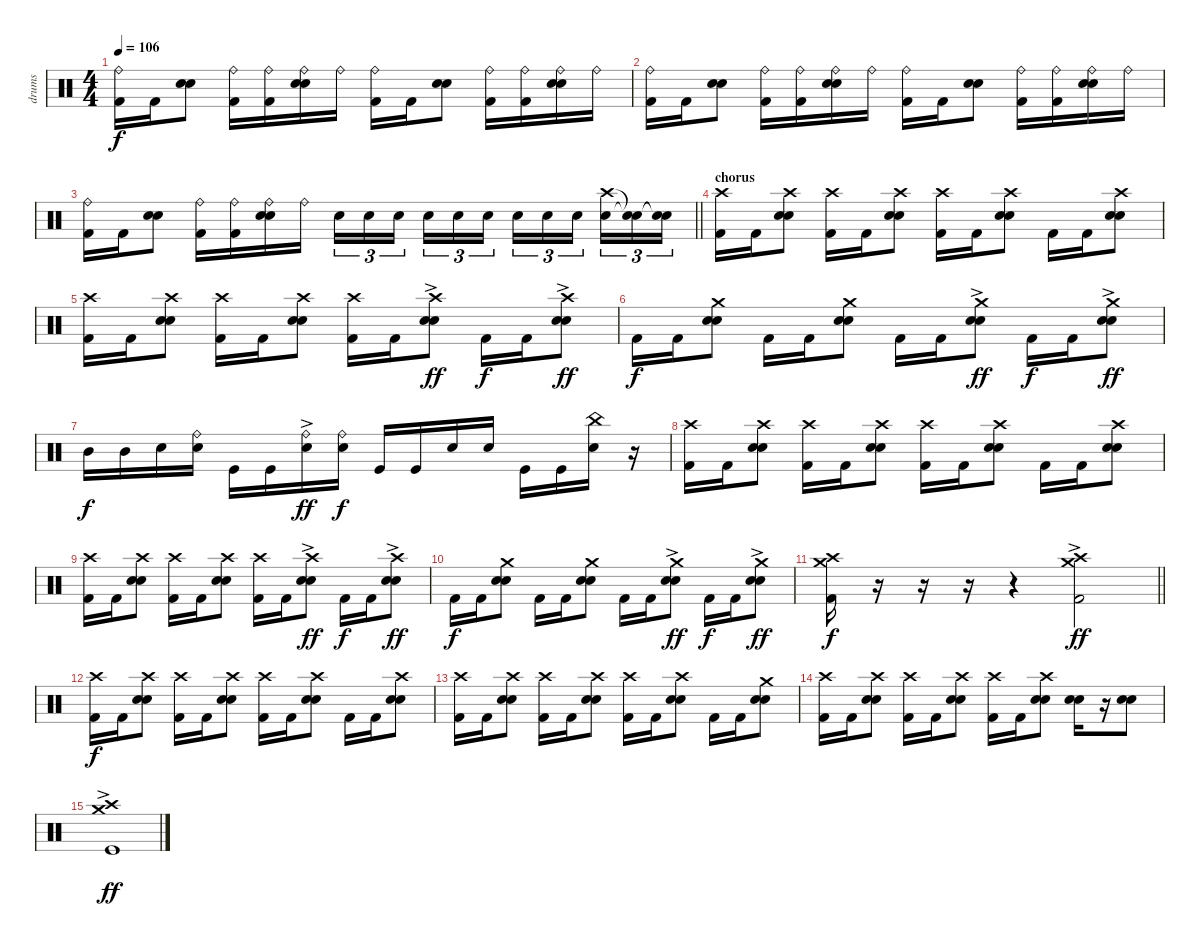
\track ("drums" "drums") {instrument percussion}
\staff {score}
\articulation defaults
\ts (4 4)
\tempo 106
\clef neutral
\ks c
("Ride (bell)" "Kick (hit) 2").16{dy f} "Kick (hit) 2".16 ("Snare (hit) 2" "Snare (hit) 2").8 ("Ride (bell)" "Kick (hit) 2").16 ("Ride (bell)" "Kick (hit) 2").16 ("Ride (bell)" "Snare (hit) 2" "Snare (hit) 2").16 "Ride (bell)".16 ("Ride (bell)" "Kick (hit) 2").16 "Kick (hit) 2".16 ("Snare (hit) 2" "Snare (hit) 2").8 ("Ride (bell)" "Kick (hit) 2").16 ("Ride (bell)" "Kick (hit) 2").16 ("Ride (bell)" "Snare (hit) 2" "Snare (hit) 2").16 "Ride (bell)".16 |
("Ride (bell)" "Kick (hit) 2").16 "Kick (hit) 2".16 ("Snare (hit) 2" "Snare (hit) 2").8 ("Ride (bell)" "Kick (hit) 2").16 ("Ride (bell)" "Kick (hit) 2").16 ("Ride (bell)" "Snare (hit) 2" "Snare (hit) 2").16 "Ride (bell)".16 ("Ride (bell)" "Kick (hit) 2").16 "Kick (hit) 2".16 ("Snare (hit) 2" "Snare (hit) 2").8 ("Ride (bell)" "Kick (hit) 2").16 ("Ride (bell)" "Kick (hit) 2").16 ("Ride (bell)" "Snare (hit) 2" "Snare (hit) 2").16 "Ride (bell)".16 |
\barLineRight lightlight
("Ride (bell)" "Kick (hit) 2").16 "Kick (hit) 2".16 ("Snare (hit) 2" "Snare (hit) 2").8 ("Ride (bell)" "Kick (hit) 2").16 ("Ride (bell)" "Kick (hit) 2").16 ("Ride (bell)" "Snare (hit) 2" "Snare (hit) 2").16 "Ride (bell)".16 "Snare (hit) 2".16{tu (3 2)} "Snare (hit) 2".16{tu (3 2)} "Snare (hit) 2".16{tu (3 2)} "Snare (hit) 2".16{tu (3 2)} "Snare (hit) 2".16{tu (3 2)} "Snare (hit) 2".16{tu (3 2)} "Snare (hit) 2".16{tu (3 2)} "Snare (hit) 2".16{tu (3 2)} "Snare (hit) 2".16{tu (3 2)} ("Crash high (hit)" "Snare (hit) 2").16{tu (3 2)} ("Snare (hit)"{t} "Snare (hit)"{t}).16{tu (3 2)} ("Snare (hit)"{t} "Snare (hit)"{t}).16{tu (3 2)} |
\section ("" "chorus")
("Crash high (hit)" "Kick (hit) 2").16 "Kick (hit) 2".16 ("Crash high (hit)" "Snare (hit) 2" "Snare (hit) 2").8 ("Crash high (hit)" "Kick (hit) 2").16 "Kick (hit) 2".16 ("Crash high (hit)" "Snare (hit) 2" "Snare (hit) 2").8 ("Crash high (hit)" "Kick (hit) 2").16 "Kick (hit) 2".16 ("Crash high (hit)" "Snare (hit) 2" "Snare (hit) 2").8 "Kick (hit) 2".16 "Kick (hit) 2".16 ("Crash high (hit)" "Snare (hit) 2" "Snare (hit) 2").8 |
("Crash high (hit)" "Kick (hit) 2").16 "Kick (hit) 2".16 ("Crash high (hit)" "Snare (hit) 2" "Snare (hit) 2").8 ("Crash high (hit)" "Kick (hit) 2").16 "Kick (hit) 2".16 ("Crash high (hit)" "Snare (hit) 2" "Snare (hit) 2").8 ("Crash high (hit)" "Kick (hit) 2").16 "Kick (hit) 2".16 ("Crash high (hit)"{ac} "Snare (hit) 2" "Snare (hit) 2").8{dy ff} "Kick (hit) 2".16{dy f} "Kick (hit) 2".16 ("Crash high (hit)"{ac} "Snare (hit) 2" "Snare (hit) 2").8{dy ff} |
"Kick (hit) 2".16{dy f} "Kick (hit) 2".16 ("Crash medium (hit)" "Snare (hit) 2" "Snare (hit) 2").8 "Kick (hit) 2".16 "Kick (hit) 2".16 ("Crash medium (hit)" "Snare (hit) 2" "Snare (hit) 2").8 "Kick (hit) 2".16 "Kick (hit) 2".16 ("Crash medium (hit)"{ac} "Snare (hit) 2" "Snare (hit) 2").8{dy ff} "Kick (hit) 2".16{dy f} "Kick (hit) 2".16 ("Crash medium (hit)"{ac} "Snare (hit) 2" "Snare (hit) 2").8{dy ff} |
"Mid Tom (hit)".16{dy f} "Mid Tom (hit)".16 "Snare (hit) 2".16 ("Ride (bell)" "Snare (hit) 2").16 "Kick (hit)".16 "Kick (hit)".16 ("Ride (bell)"{ac} "Snare (hit) 2").16{dy ff} ("Ride (bell)" "Snare (hit) 2").16{dy f} "Kick (hit)".16 "Kick (hit)".16 "Snare (hit) 2".16 "Snare (hit) 2".16 "Kick (hit)".16 "Kick (hit)".16 ("China (hit)" "Snare (hit) 2").16 r.16 |
("Crash high (hit)" "Kick (hit) 2").16 "Kick (hit) 2".16 ("Crash high (hit)" "Snare (hit) 2" "Snare (hit) 2").8 ("Crash high (hit)" "Kick (hit) 2").16 "Kick (hit) 2".16 ("Crash high (hit)" "Snare (hit) 2" "Snare (hit) 2").8 ("Crash high (hit)" "Kick (hit) 2").16 "Kick (hit) 2".16 ("Crash high (hit)" "Snare (hit) 2" "Snare (hit) 2").8 "Kick (hit) 2".16 "Kick (hit) 2".16 ("Crash high (hit)" "Snare (hit) 2" "Snare (hit) 2").8 |
("Crash high (hit)" "Kick (hit) 2").16 "Kick (hit) 2".16 ("Crash high (hit)" "Snare (hit) 2" "Snare (hit) 2").8 ("Crash high (hit)" "Kick (hit) 2").16 "Kick (hit) 2".16 ("Crash high (hit)" "Snare (hit) 2" "Snare (hit) 2").8 ("Crash high (hit)" "Kick (hit) 2").16 "Kick (hit) 2".16 ("Crash high (hit)"{ac} "Snare (hit) 2" "Snare (hit) 2").8{dy ff} "Kick (hit) 2".16{dy f} "Kick (hit) 2".16 ("Crash high (hit)"{ac} "Snare (hit) 2" "Snare (hit) 2").8{dy ff} |
"Kick (hit) 2".16{dy f} "Kick (hit) 2".16 ("Crash medium (hit)" "Snare (hit) 2" "Snare (hit) 2").8 "Kick (hit) 2".16 "Kick (hit) 2".16 ("Crash medium (hit)" "Snare (hit) 2" "Snare (hit) 2").8 "Kick (hit) 2".16 "Kick (hit) 2".16 ("Crash medium (hit)"{ac} "Snare (hit) 2" "Snare (hit) 2").8{dy ff} "Kick (hit) 2".16{dy f} "Kick (hit) 2".16 ("Crash medium (hit)"{ac} "Snare (hit) 2" "Snare (hit) 2").8{dy ff} |
\barLineRight lightlight
("Crash high (hit)" "Crash medium (hit)" "Kick (hit) 2").16{dy f} r.16 r.16 r.16 r.4 ("Crash high (hit)"{ac} "Crash medium (hit)"{ac} "Kick (hit) 2"{ac}).2{dy ff} |
("Crash high (hit)" "Kick (hit) 2").16{dy f} "Kick (hit) 2".16 ("Crash high (hit)" "Snare (hit) 2" "Snare (hit) 2").8 ("Crash high (hit)" "Kick (hit) 2").16 "Kick (hit) 2".16 ("Crash high (hit)" "Snare (hit) 2" "Snare (hit) 2").8 ("Crash high (hit)" "Kick (hit) 2").16 "Kick (hit) 2".16 ("Crash high (hit)" "Snare (hit) 2" "Snare (hit) 2").8 "Kick (hit) 2".16 "Kick (hit) 2".16 ("Crash high (hit)" "Snare (hit) 2" "Snare (hit) 2").8 |
("Crash high (hit)" "Kick (hit) 2").16 "Kick (hit) 2".16 ("Crash high (hit)" "Snare (hit) 2" "Snare (hit) 2").8 ("Crash high (hit)" "Kick (hit) 2").16 "Kick (hit) 2".16 ("Crash high (hit)" "Snare (hit) 2" "Snare (hit) 2").8 ("Crash high (hit)" "Kick (hit) 2").16 "Kick (hit) 2".16 ("Crash high (hit)" "Snare (hit) 2" "Snare (hit) 2").8 "Kick (hit) 2".16 "Kick (hit) 2".16 ("Crash medium (hit)" "Snare (hit) 2" "Snare (hit) 2").8 |
("Crash high (hit)" "Kick (hit) 2").16 "Kick (hit) 2".16 ("Crash high (hit)" "Snare (hit) 2" "Snare (hit) 2").8 ("Crash high (hit)" "Kick (hit) 2").16 "Kick (hit) 2".16 ("Crash high (hit)" "Snare (hit) 2" "Snare (hit) 2").8 ("Crash high (hit)" "Kick (hit) 2").16 "Kick (hit) 2".16 ("Crash high (hit)" "Snare (hit) 2" "Snare (hit) 2").8 ("Snare (hit) 2" "Snare (hit) 2").16 r.16 ("Snare (hit) 2" "Snare (hit) 2").8 |
("Crash high (hit)"{ac} "Crash medium (hit)"{ac} "Kick (hit)"{ac}).1{dy ff}
